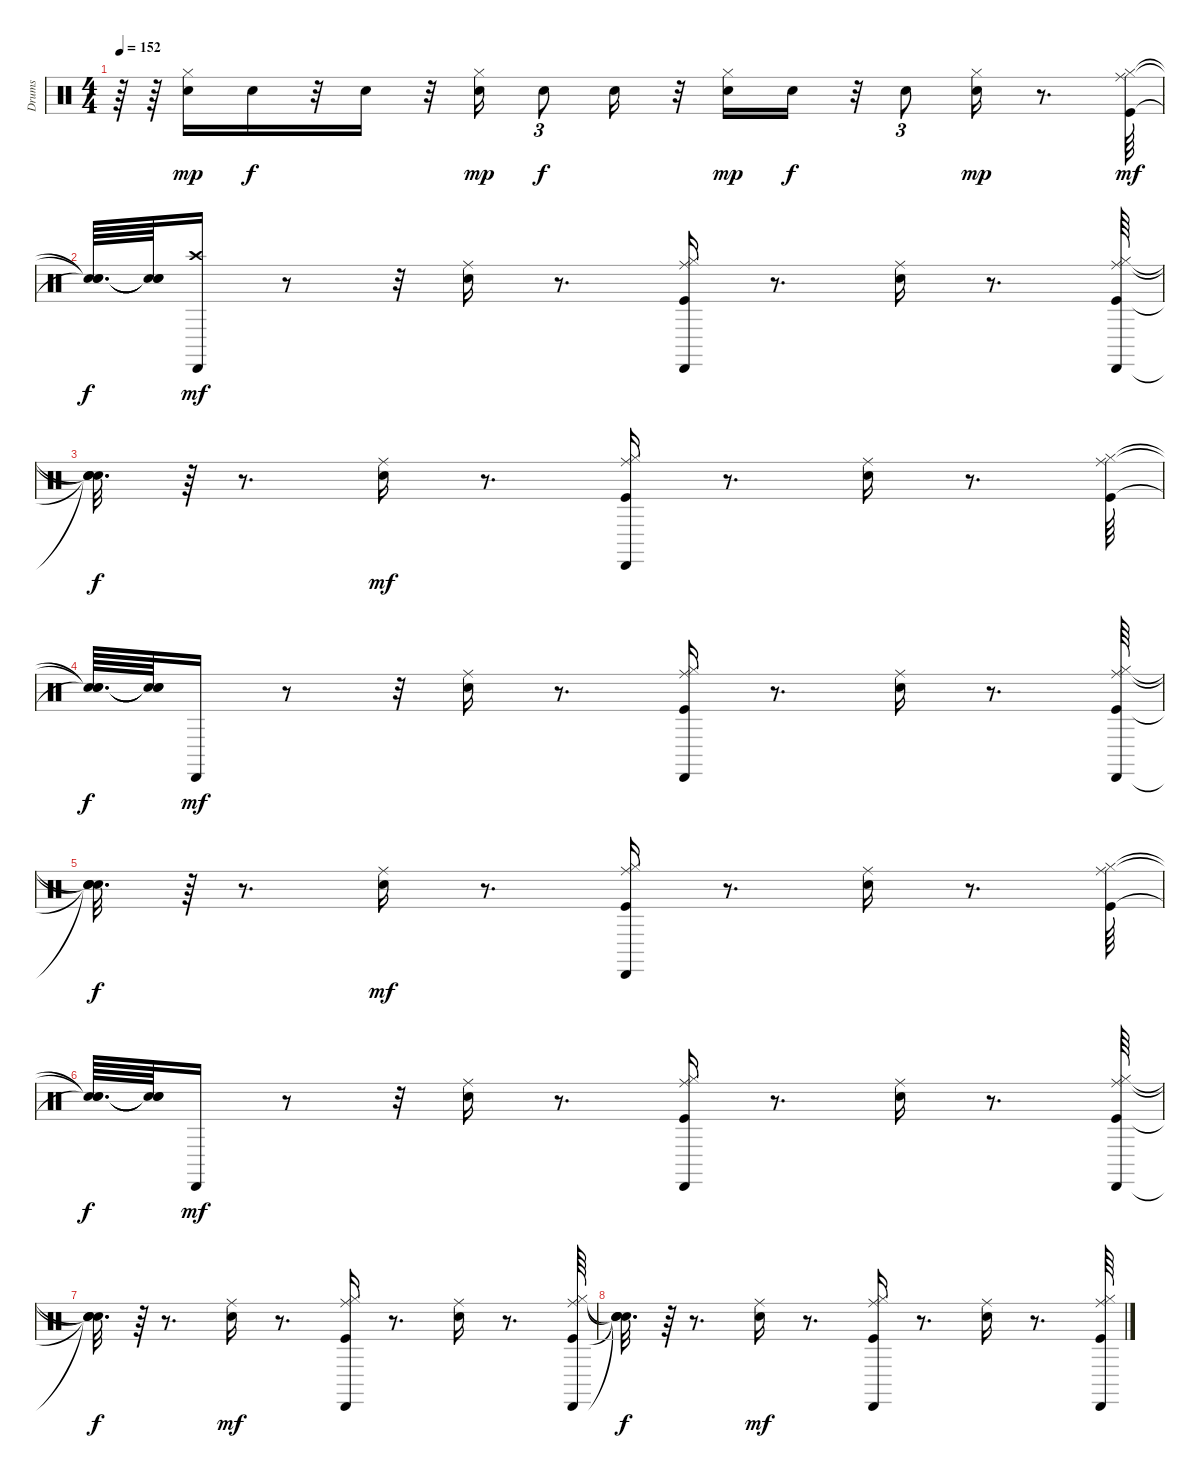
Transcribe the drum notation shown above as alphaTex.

\track ("Drums" "Drums") {instrument percussion}
\staff {score}
\articulation defaults
\ts (4 4)
\tempo 152
\clef neutral
\ks c
r.64{dy mp} r.64 ("Hi-Hat (closed)" "Snare (hit) 2").16 "Snare (hit) 2".16{dy f} r.32 "Snare (hit) 2".16 r.32 ("Snare (hit) 2" "Hi-Hat (closed)").16{dy mp} "Snare (hit) 2".8{tu (3 2) dy f} "Snare (hit) 2".16 r.32 ("Hi-Hat (closed)" "Snare (hit) 2").16{dy mp} "Snare (hit) 2".16{dy f} r.32 "Snare (hit) 2".8{tu (3 2)} ("Snare (hit) 2" "Hi-Hat (closed)").16{dy mp} r.8{d} ("Kick (hit)" "Hi-Hat (closed)" "Ride (middle)").64{dy mf} |
("Snare (hit)"{t} "Snare (hit)"{t} "Snare (hit)"{t}).64{d dy f} ("Snare (hit)"{t} "Snare (hit)"{t} "Snare (hit)"{t}).64 ("Crash high (hit)" "Cabasa (hit)").16{dy mf} r.8 r.32 ("Ride (middle)" "Snare (hit) 2").16 r.8{d} ("Kick (hit)" "Hi-Hat (closed)" "Ride (middle)" "Cabasa (hit)").16 r.8{d} ("Snare (hit) 2" "Ride (middle)").16 r.8{d} ("Kick (hit)" "Hi-Hat (closed)" "Ride (middle)" "Cabasa (hit)").64 |
("Snare (hit)"{t} "Snare (hit)"{t} "Snare (hit)"{t} "Snare (hit)"{t}).32{d dy f} r.64 r.8{d} ("Snare (hit) 2" "Ride (middle)").16{dy mf} r.8{d} ("Kick (hit)" "Hi-Hat (closed)" "Ride (middle)" "Cabasa (hit)").16 r.8{d} ("Snare (hit) 2" "Ride (middle)").16 r.8{d} ("Kick (hit)" "Hi-Hat (closed)" "Ride (middle)").64 |
("Snare (hit)"{t} "Snare (hit)"{t} "Snare (hit)"{t}).64{d dy f} ("Snare (hit)"{t} "Snare (hit)"{t} "Snare (hit)"{t}).64 "Cabasa (hit)".16{dy mf} r.8 r.32 ("Ride (middle)" "Snare (hit) 2").16 r.8{d} ("Kick (hit)" "Hi-Hat (closed)" "Ride (middle)" "Cabasa (hit)").16 r.8{d} ("Ride (middle)" "Snare (hit) 2").16 r.8{d} ("Kick (hit)" "Hi-Hat (closed)" "Ride (middle)" "Cabasa (hit)").64 |
("Snare (hit)"{t} "Snare (hit)"{t} "Snare (hit)"{t} "Snare (hit)"{t}).32{d dy f} r.64 r.8{d} ("Ride (middle)" "Snare (hit) 2").16{dy mf} r.8{d} ("Kick (hit)" "Hi-Hat (closed)" "Ride (middle)" "Cabasa (hit)").16 r.8{d} ("Snare (hit) 2" "Ride (middle)").16 r.8{d} ("Kick (hit)" "Hi-Hat (closed)" "Ride (middle)").64 |
("Snare (hit)"{t} "Snare (hit)"{t} "Snare (hit)"{t}).64{d dy f} ("Snare (hit)"{t} "Snare (hit)"{t} "Snare (hit)"{t}).64 "Cabasa (hit)".16{dy mf} r.8 r.32 ("Ride (middle)" "Snare (hit) 2").16 r.8{d} ("Kick (hit)" "Hi-Hat (closed)" "Ride (middle)" "Cabasa (hit)").16 r.8{d} ("Snare (hit) 2" "Ride (middle)").16 r.8{d} ("Kick (hit)" "Hi-Hat (closed)" "Ride (middle)" "Cabasa (hit)").64 |
("Snare (hit)"{t} "Snare (hit)"{t} "Snare (hit)"{t} "Snare (hit)"{t}).32{d dy f} r.64 r.8{d} ("Ride (middle)" "Snare (hit) 2").16{dy mf} r.8{d} ("Kick (hit)" "Hi-Hat (closed)" "Ride (middle)" "Cabasa (hit)").16 r.8{d} ("Ride (middle)" "Snare (hit) 2").16 r.8{d} ("Kick (hit)" "Hi-Hat (closed)" "Ride (middle)" "Cabasa (hit)").64 |
("Snare (hit)"{t} "Snare (hit)"{t} "Snare (hit)"{t} "Snare (hit)"{t}).32{d dy f} r.64 r.8{d} ("Snare (hit) 2" "Ride (middle)").16{dy mf} r.8{d} ("Kick (hit)" "Hi-Hat (closed)" "Ride (middle)" "Cabasa (hit)").16 r.8{d} ("Ride (middle)" "Snare (hit) 2").16 r.8{d} ("Kick (hit)" "Hi-Hat (closed)" "Ride (middle)" "Cabasa (hit)").64
